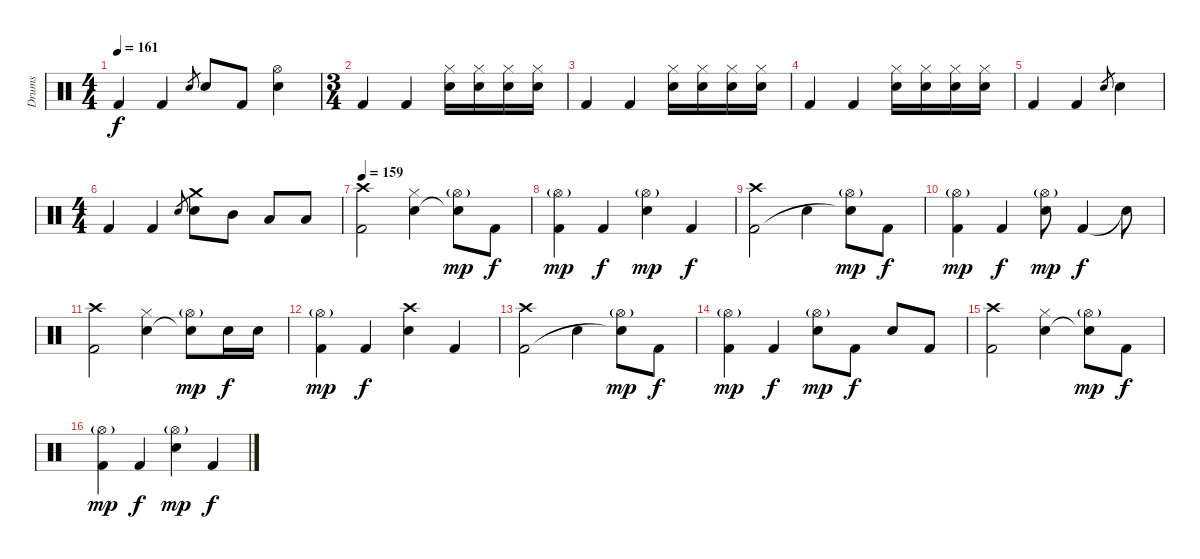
\track ("Drums" "Drums") {instrument percussion}
\staff {score}
\articulation defaults
\ts (4 4)
\tempo 161
\clef neutral
\ks c "Kick (hit) 2".4{dy f} "Kick (hit) 2".4 "Electric Snare (hit)".8{gr} "Electric Snare (hit)".8 "Kick (hit) 2".8
("Hi-Hat (open)" "Electric Snare (hit)").4 |
\ts (3 4)
"Kick (hit) 2".4 "Kick (hit) 2".4 ("Hi-Hat (closed)" "Electric Snare (hit)").16 ("Hi-Hat (closed)" "Electric Snare (hit)").16 ("Hi-Hat (closed)" "Electric Snare (hit)").16 ("Hi-Hat (closed)" "Electric Snare (hit)").16 |
"Kick (hit) 2".4 "Kick (hit) 2".4 ("Hi-Hat (closed)" "Electric Snare (hit)").16 ("Hi-Hat (closed)" "Electric Snare (hit)").16 ("Hi-Hat (closed)" "Electric Snare (hit)").16 ("Hi-Hat (closed)" "Electric Snare (hit)").16 |
"Kick (hit) 2".4 "Kick (hit) 2".4 ("Hi-Hat (closed)" "Electric Snare (hit)").16 ("Hi-Hat (closed)" "Electric Snare (hit)").16 ("Hi-Hat (closed)" "Electric Snare (hit)").16 ("Hi-Hat (closed)" "Electric Snare (hit)").16 |
"Kick (hit) 2".4 "Kick (hit) 2".4 "Electric Snare (hit)".8{gr} "Electric Snare (hit)".4 |
\ts (4 4)
"Kick (hit) 2".4 "Kick (hit) 2".4 "Electric Snare (hit)".8{gr} ("Electric Snare (hit)" "Crash medium (hit)").8 "Mid Tom (hit)".8 "Low Tom (hit)".8 "Low Floor Tom (hit)".8 |
\tempo 159
("Crash high (hit)" "Kick (hit) 2").2 ("Hi-Hat (closed)" "Electric Snare (hit)").4 ("Hi-Hat (open)"{g} "Snare (hit)"{t}).8{dy mp} "Kick (hit) 2".8{dy f} |
("Hi-Hat (open)"{g} "Kick (hit) 2").4{dy mp} "Kick (hit) 2".4{dy f} ("Hi-Hat (open)"{g} "Electric Snare (hit)").4{dy mp} "Kick (hit) 2".4{dy f} |
("Crash high (hit)" "Kick (hit) 2").2 "Electric Snare (hit)".4 ("Hi-Hat (open)"{g} "Snare (hit)"{t}).8{dy mp} "Kick (hit) 2".8{dy f} |
("Hi-Hat (open)"{g} "Kick (hit) 2").4{dy mp} "Kick (hit) 2".4{dy f} ("Hi-Hat (open)"{g} "Electric Snare (hit)").8{dy mp} "Kick (hit) 2".4{dy f} "Snare (hit)"{t}.8 |
("Crash high (hit)" "Kick (hit) 2").2 ("Hi-Hat (closed)" "Electric Snare (hit)").4 ("Hi-Hat (open)"{g} "Snare (hit)"{t}).8{dy mp} "Electric Snare (hit)".16{dy f} "Electric Snare (hit)".16 |
("Hi-Hat (open)"{g} "Kick (hit) 2").4{dy mp} "Kick (hit) 2".4{dy f} ("Crash high (hit)" "Electric Snare (hit)").4 "Kick (hit) 2".4 |
("Crash high (hit)" "Kick (hit) 2").2 "Electric Snare (hit)".4 ("Hi-Hat (open)"{g} "Snare (hit)"{t}).8{dy mp} "Kick (hit) 2".8{dy f} |
("Hi-Hat (open)"{g} "Kick (hit) 2").4{dy mp} "Kick (hit) 2".4{dy f} ("Hi-Hat (open)"{g} "Electric Snare (hit)").8{dy mp} "Kick (hit) 2".8{dy f} "Electric Snare (hit)".8 "Kick (hit) 2".8 |
("Crash high (hit)" "Kick (hit) 2").2 ("Hi-Hat (closed)" "Electric Snare (hit)").4 ("Hi-Hat (open)"{g} "Snare (hit)"{t}).8{dy mp} "Kick (hit) 2".8{dy f} |
("Hi-Hat (open)"{g} "Kick (hit) 2").4{dy mp} "Kick (hit) 2".4{dy f} ("Hi-Hat (open)"{g} "Electric Snare (hit)").4{dy mp} "Kick (hit) 2".4{dy f}
